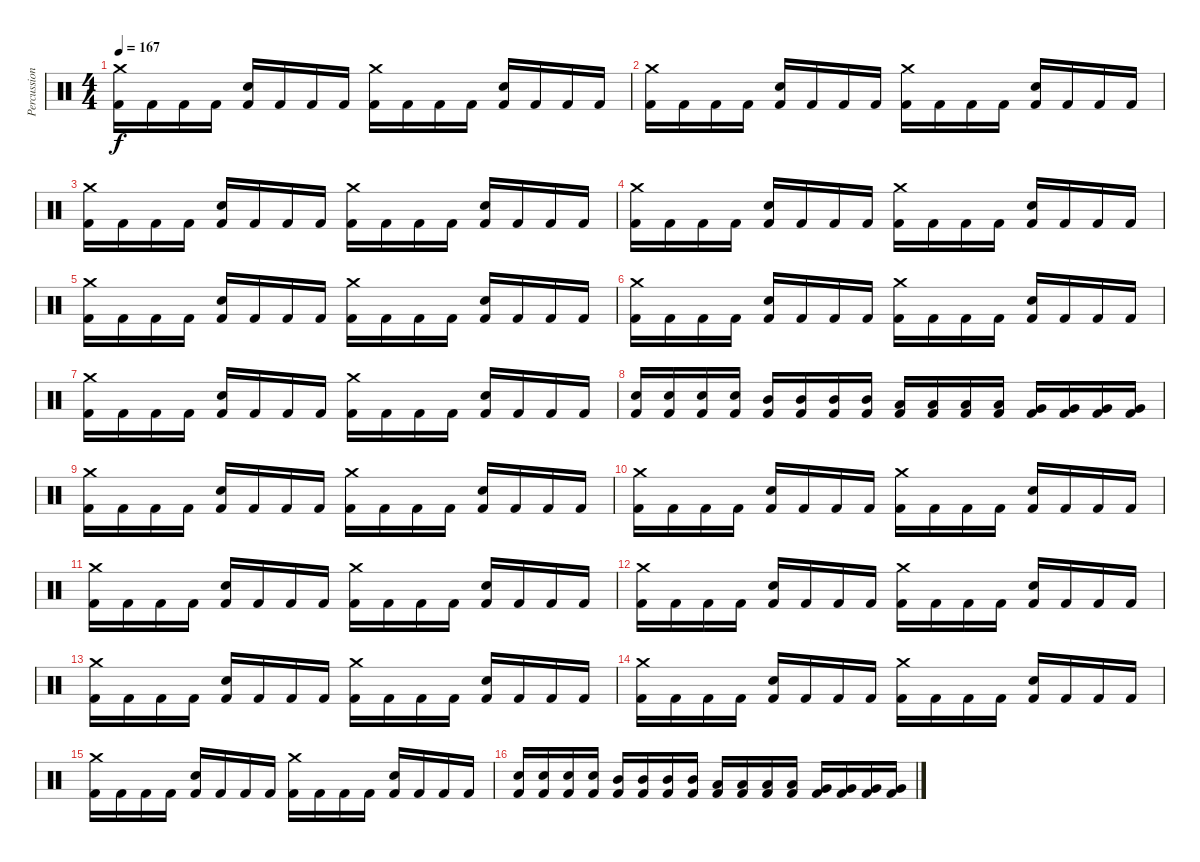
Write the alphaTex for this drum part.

\track ("Percussion" "Percussion") {instrument percussion}
\staff {score}
\articulation defaults
\ts (4 4)
\tempo 167
\clef neutral
\ks c
("Crash medium (hit)" "Kick (hit) 2").16{dy f} "Kick (hit) 2".16 "Kick (hit) 2".16 "Kick (hit) 2".16 ("Snare (hit) 2" "Kick (hit) 2").16 "Kick (hit) 2".16 "Kick (hit) 2".16 "Kick (hit) 2".16 ("Crash medium (hit)" "Kick (hit) 2").16 "Kick (hit) 2".16 "Kick (hit) 2".16 "Kick (hit) 2".16 ("Snare (hit) 2" "Kick (hit) 2").16 "Kick (hit) 2".16 "Kick (hit) 2".16 "Kick (hit) 2".16 |
("Crash medium (hit)" "Kick (hit) 2").16 "Kick (hit) 2".16 "Kick (hit) 2".16 "Kick (hit) 2".16 ("Snare (hit) 2" "Kick (hit) 2").16 "Kick (hit) 2".16 "Kick (hit) 2".16 "Kick (hit) 2".16 ("Crash medium (hit)" "Kick (hit) 2").16 "Kick (hit) 2".16 "Kick (hit) 2".16 "Kick (hit) 2".16 ("Snare (hit) 2" "Kick (hit) 2").16 "Kick (hit) 2".16 "Kick (hit) 2".16 "Kick (hit) 2".16 |
("Crash medium (hit)" "Kick (hit) 2").16 "Kick (hit) 2".16 "Kick (hit) 2".16 "Kick (hit) 2".16 ("Snare (hit) 2" "Kick (hit) 2").16 "Kick (hit) 2".16 "Kick (hit) 2".16 "Kick (hit) 2".16 ("Crash medium (hit)" "Kick (hit) 2").16 "Kick (hit) 2".16 "Kick (hit) 2".16 "Kick (hit) 2".16 ("Snare (hit) 2" "Kick (hit) 2").16 "Kick (hit) 2".16 "Kick (hit) 2".16 "Kick (hit) 2".16 |
("Crash medium (hit)" "Kick (hit) 2").16 "Kick (hit) 2".16 "Kick (hit) 2".16 "Kick (hit) 2".16 ("Snare (hit) 2" "Kick (hit) 2").16 "Kick (hit) 2".16 "Kick (hit) 2".16 "Kick (hit) 2".16 ("Crash medium (hit)" "Kick (hit) 2").16 "Kick (hit) 2".16 "Kick (hit) 2".16 "Kick (hit) 2".16 ("Snare (hit) 2" "Kick (hit) 2").16 "Kick (hit) 2".16 "Kick (hit) 2".16 "Kick (hit) 2".16 |
("Crash medium (hit)" "Kick (hit) 2").16 "Kick (hit) 2".16 "Kick (hit) 2".16 "Kick (hit) 2".16 ("Snare (hit) 2" "Kick (hit) 2").16 "Kick (hit) 2".16 "Kick (hit) 2".16 "Kick (hit) 2".16 ("Crash medium (hit)" "Kick (hit) 2").16 "Kick (hit) 2".16 "Kick (hit) 2".16 "Kick (hit) 2".16 ("Snare (hit) 2" "Kick (hit) 2").16 "Kick (hit) 2".16 "Kick (hit) 2".16 "Kick (hit) 2".16 |
("Crash medium (hit)" "Kick (hit) 2").16 "Kick (hit) 2".16 "Kick (hit) 2".16 "Kick (hit) 2".16 ("Snare (hit) 2" "Kick (hit) 2").16 "Kick (hit) 2".16 "Kick (hit) 2".16 "Kick (hit) 2".16 ("Crash medium (hit)" "Kick (hit) 2").16 "Kick (hit) 2".16 "Kick (hit) 2".16 "Kick (hit) 2".16 ("Snare (hit) 2" "Kick (hit) 2").16 "Kick (hit) 2".16 "Kick (hit) 2".16 "Kick (hit) 2".16 |
("Crash medium (hit)" "Kick (hit) 2").16 "Kick (hit) 2".16 "Kick (hit) 2".16 "Kick (hit) 2".16 ("Snare (hit) 2" "Kick (hit) 2").16 "Kick (hit) 2".16 "Kick (hit) 2".16 "Kick (hit) 2".16 ("Crash medium (hit)" "Kick (hit) 2").16 "Kick (hit) 2".16 "Kick (hit) 2".16 "Kick (hit) 2".16 ("Snare (hit) 2" "Kick (hit) 2").16 "Kick (hit) 2".16 "Kick (hit) 2".16 "Kick (hit) 2".16 |
("Snare (hit) 2" "Kick (hit) 2").16 ("Snare (hit) 2" "Kick (hit) 2").16 ("Snare (hit) 2" "Kick (hit) 2").16 ("Snare (hit) 2" "Kick (hit) 2").16 ("Mid Tom (hit)" "Kick (hit) 2").16 ("Mid Tom (hit)" "Kick (hit) 2").16 ("Mid Tom (hit)" "Kick (hit) 2").16 ("Mid Tom (hit)" "Kick (hit) 2").16 ("Low Tom (hit)" "Kick (hit) 2").16 ("Low Tom (hit)" "Kick (hit) 2").16 ("Low Tom (hit)" "Kick (hit) 2").16 ("Low Tom (hit)" "Kick (hit) 2").16 ("Very Low Tom (hit)" "Kick (hit) 2").16 ("Very Low Tom (hit)" "Kick (hit) 2").16 ("Very Low Tom (hit)" "Kick (hit) 2").16 ("Very Low Tom (hit)" "Kick (hit) 2").16 |
("Crash medium (hit)" "Kick (hit) 2").16 "Kick (hit) 2".16 "Kick (hit) 2".16 "Kick (hit) 2".16 ("Snare (hit) 2" "Kick (hit) 2").16 "Kick (hit) 2".16 "Kick (hit) 2".16 "Kick (hit) 2".16 ("Crash medium (hit)" "Kick (hit) 2").16 "Kick (hit) 2".16 "Kick (hit) 2".16 "Kick (hit) 2".16 ("Snare (hit) 2" "Kick (hit) 2").16 "Kick (hit) 2".16 "Kick (hit) 2".16 "Kick (hit) 2".16 |
("Crash medium (hit)" "Kick (hit) 2").16 "Kick (hit) 2".16 "Kick (hit) 2".16 "Kick (hit) 2".16 ("Snare (hit) 2" "Kick (hit) 2").16 "Kick (hit) 2".16 "Kick (hit) 2".16 "Kick (hit) 2".16 ("Crash medium (hit)" "Kick (hit) 2").16 "Kick (hit) 2".16 "Kick (hit) 2".16 "Kick (hit) 2".16 ("Snare (hit) 2" "Kick (hit) 2").16 "Kick (hit) 2".16 "Kick (hit) 2".16 "Kick (hit) 2".16 |
("Crash medium (hit)" "Kick (hit) 2").16 "Kick (hit) 2".16 "Kick (hit) 2".16 "Kick (hit) 2".16 ("Snare (hit) 2" "Kick (hit) 2").16 "Kick (hit) 2".16 "Kick (hit) 2".16 "Kick (hit) 2".16 ("Crash medium (hit)" "Kick (hit) 2").16 "Kick (hit) 2".16 "Kick (hit) 2".16 "Kick (hit) 2".16 ("Snare (hit) 2" "Kick (hit) 2").16 "Kick (hit) 2".16 "Kick (hit) 2".16 "Kick (hit) 2".16 |
("Crash medium (hit)" "Kick (hit) 2").16 "Kick (hit) 2".16 "Kick (hit) 2".16 "Kick (hit) 2".16 ("Snare (hit) 2" "Kick (hit) 2").16 "Kick (hit) 2".16 "Kick (hit) 2".16 "Kick (hit) 2".16 ("Crash medium (hit)" "Kick (hit) 2").16 "Kick (hit) 2".16 "Kick (hit) 2".16 "Kick (hit) 2".16 ("Snare (hit) 2" "Kick (hit) 2").16 "Kick (hit) 2".16 "Kick (hit) 2".16 "Kick (hit) 2".16 |
("Crash medium (hit)" "Kick (hit) 2").16 "Kick (hit) 2".16 "Kick (hit) 2".16 "Kick (hit) 2".16 ("Snare (hit) 2" "Kick (hit) 2").16 "Kick (hit) 2".16 "Kick (hit) 2".16 "Kick (hit) 2".16 ("Crash medium (hit)" "Kick (hit) 2").16 "Kick (hit) 2".16 "Kick (hit) 2".16 "Kick (hit) 2".16 ("Snare (hit) 2" "Kick (hit) 2").16 "Kick (hit) 2".16 "Kick (hit) 2".16 "Kick (hit) 2".16 |
("Crash medium (hit)" "Kick (hit) 2").16 "Kick (hit) 2".16 "Kick (hit) 2".16 "Kick (hit) 2".16 ("Snare (hit) 2" "Kick (hit) 2").16 "Kick (hit) 2".16 "Kick (hit) 2".16 "Kick (hit) 2".16 ("Crash medium (hit)" "Kick (hit) 2").16 "Kick (hit) 2".16 "Kick (hit) 2".16 "Kick (hit) 2".16 ("Snare (hit) 2" "Kick (hit) 2").16 "Kick (hit) 2".16 "Kick (hit) 2".16 "Kick (hit) 2".16 |
("Crash medium (hit)" "Kick (hit) 2").16 "Kick (hit) 2".16 "Kick (hit) 2".16 "Kick (hit) 2".16 ("Snare (hit) 2" "Kick (hit) 2").16 "Kick (hit) 2".16 "Kick (hit) 2".16 "Kick (hit) 2".16 ("Crash medium (hit)" "Kick (hit) 2").16 "Kick (hit) 2".16 "Kick (hit) 2".16 "Kick (hit) 2".16 ("Snare (hit) 2" "Kick (hit) 2").16 "Kick (hit) 2".16 "Kick (hit) 2".16 "Kick (hit) 2".16 |
("Snare (hit) 2" "Kick (hit) 2").16 ("Snare (hit) 2" "Kick (hit) 2").16 ("Snare (hit) 2" "Kick (hit) 2").16 ("Snare (hit) 2" "Kick (hit) 2").16 ("Mid Tom (hit)" "Kick (hit) 2").16 ("Mid Tom (hit)" "Kick (hit) 2").16 ("Mid Tom (hit)" "Kick (hit) 2").16 ("Mid Tom (hit)" "Kick (hit) 2").16 ("Low Tom (hit)" "Kick (hit) 2").16 ("Low Tom (hit)" "Kick (hit) 2").16 ("Low Tom (hit)" "Kick (hit) 2").16 ("Low Tom (hit)" "Kick (hit) 2").16 ("Very Low Tom (hit)" "Kick (hit) 2").16 ("Very Low Tom (hit)" "Kick (hit) 2").16 ("Very Low Tom (hit)" "Kick (hit) 2").16 ("Very Low Tom (hit)" "Kick (hit) 2").16
